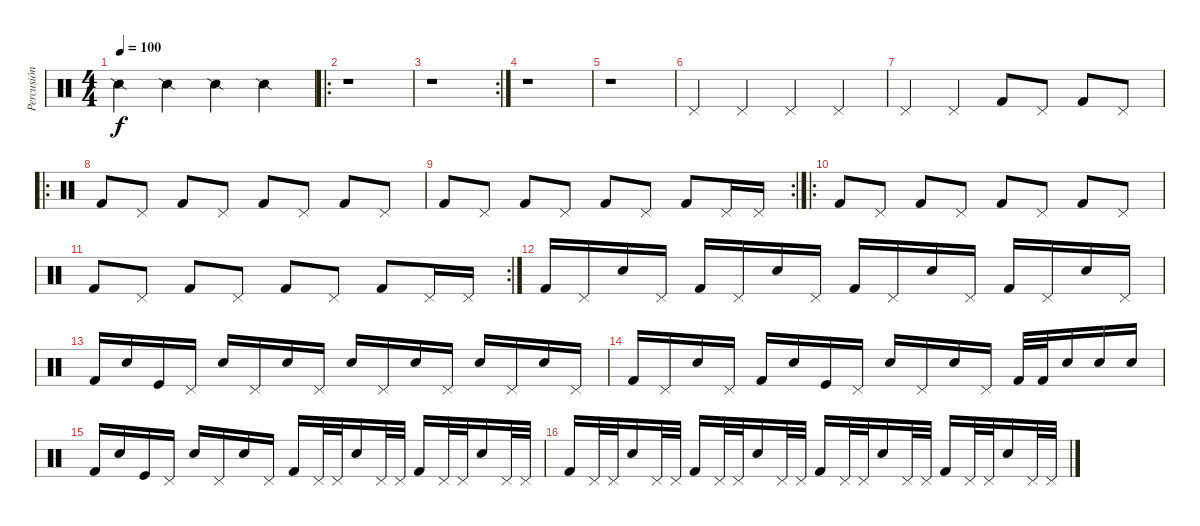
\track ("Percusión" "Percusión") {instrument percussion}
\staff {score}
\articulation defaults
\ts (4 4)
\tempo 100
\clef neutral
\ks c "Snare (side stick) 2".4{dy f} "Snare (side stick) 2".4 "Snare (side stick) 2".4 "Snare (side stick) 2".4
|
\ro
r.1 |
\rc 2
r.1 |
r.1 |
r.1 |
"Pedal Hi-Hat (hit)".4 "Pedal Hi-Hat (hit)".4 "Pedal Hi-Hat (hit)".4 "Pedal Hi-Hat (hit)".4 |
"Pedal Hi-Hat (hit)".4 "Pedal Hi-Hat (hit)".4 "Kick (hit) 2".8 "Pedal Hi-Hat (hit)".8 "Kick (hit) 2".8 "Pedal Hi-Hat (hit)".8 |
\ro "Kick (hit) 2".8 "Pedal Hi-Hat (hit)".8 "Kick (hit) 2".8 "Pedal Hi-Hat (hit)".8 "Kick (hit) 2".8 "Pedal Hi-Hat (hit)".8 "Kick (hit) 2".8 "Pedal Hi-Hat (hit)".8
|
\rc 2 "Kick (hit) 2".8 "Pedal Hi-Hat (hit)".8 "Kick (hit) 2".8 "Pedal Hi-Hat (hit)".8 "Kick (hit) 2".8 "Pedal Hi-Hat (hit)".8 "Kick (hit) 2".8 "Pedal Hi-Hat (hit)".16 "Pedal Hi-Hat (hit)".16
|
\ro "Kick (hit) 2".8 "Pedal Hi-Hat (hit)".8 "Kick (hit) 2".8 "Pedal Hi-Hat (hit)".8 "Kick (hit) 2".8 "Pedal Hi-Hat (hit)".8 "Kick (hit) 2".8 "Pedal Hi-Hat (hit)".8
|
\rc 2 "Kick (hit) 2".8 "Pedal Hi-Hat (hit)".8 "Kick (hit) 2".8 "Pedal Hi-Hat (hit)".8 "Kick (hit) 2".8 "Pedal Hi-Hat (hit)".8 "Kick (hit) 2".8 "Pedal Hi-Hat (hit)".16 "Pedal Hi-Hat (hit)".16
|
"Kick (hit) 2".16 "Pedal Hi-Hat (hit)".16 "Snare (hit) 2".16 "Pedal Hi-Hat (hit)".16 "Kick (hit) 2".16 "Pedal Hi-Hat (hit)".16 "Snare (hit) 2".16 "Pedal Hi-Hat (hit)".16 "Kick (hit) 2".16 "Pedal Hi-Hat (hit)".16 "Snare (hit) 2".16 "Pedal Hi-Hat (hit)".16 "Kick (hit) 2".16 "Pedal Hi-Hat (hit)".16 "Snare (hit) 2".16 "Pedal Hi-Hat (hit)".16 |
"Kick (hit) 2".16 "Snare (hit) 2".16 "Kick (hit)".16 "Pedal Hi-Hat (hit)".16 "Snare (hit) 2".16 "Pedal Hi-Hat (hit)".16 "Snare (hit) 2".16 "Pedal Hi-Hat (hit)".16 "Snare (hit) 2".16 "Pedal Hi-Hat (hit)".16 "Snare (hit) 2".16 "Pedal Hi-Hat (hit)".16 "Snare (hit) 2".16 "Pedal Hi-Hat (hit)".16 "Snare (hit) 2".16 "Pedal Hi-Hat (hit)".16 |
"Kick (hit) 2".16 "Pedal Hi-Hat (hit)".16 "Snare (hit) 2".16 "Pedal Hi-Hat (hit)".16 "Kick (hit) 2".16 "Snare (hit) 2".16 "Kick (hit)".16 "Pedal Hi-Hat (hit)".16 "Snare (hit) 2".16 "Pedal Hi-Hat (hit)".16 "Snare (hit) 2".16 "Pedal Hi-Hat (hit)".16 "Kick (hit) 2".32 "Kick (hit) 2".32 "Snare (hit) 2".16 "Snare (hit) 2".16 "Snare (hit) 2".16 |
"Kick (hit) 2".16 "Snare (hit) 2".16 "Kick (hit)".16 "Pedal Hi-Hat (hit)".16 "Snare (hit) 2".16 "Pedal Hi-Hat (hit)".16 "Snare (hit) 2".16 "Pedal Hi-Hat (hit)".16 "Kick (hit) 2".16 "Pedal Hi-Hat (hit)".32 "Pedal Hi-Hat (hit)".32 "Snare (hit) 2".16 "Pedal Hi-Hat (hit)".32 "Pedal Hi-Hat (hit)".32 "Kick (hit) 2".16 "Pedal Hi-Hat (hit)".32 "Pedal Hi-Hat (hit)".32 "Snare (hit) 2".16 "Pedal Hi-Hat (hit)".32 "Pedal Hi-Hat (hit)".32 |
"Kick (hit) 2".16 "Pedal Hi-Hat (hit)".32 "Pedal Hi-Hat (hit)".32 "Snare (hit) 2".16 "Pedal Hi-Hat (hit)".32 "Pedal Hi-Hat (hit)".32 "Kick (hit) 2".16 "Pedal Hi-Hat (hit)".32 "Pedal Hi-Hat (hit)".32 "Snare (hit) 2".16 "Pedal Hi-Hat (hit)".32 "Pedal Hi-Hat (hit)".32 "Kick (hit) 2".16 "Pedal Hi-Hat (hit)".32 "Pedal Hi-Hat (hit)".32 "Snare (hit) 2".16 "Pedal Hi-Hat (hit)".32 "Pedal Hi-Hat (hit)".32 "Kick (hit) 2".16 "Pedal Hi-Hat (hit)".32 "Pedal Hi-Hat (hit)".32 "Snare (hit) 2".16 "Pedal Hi-Hat (hit)".32 "Pedal Hi-Hat (hit)".32
